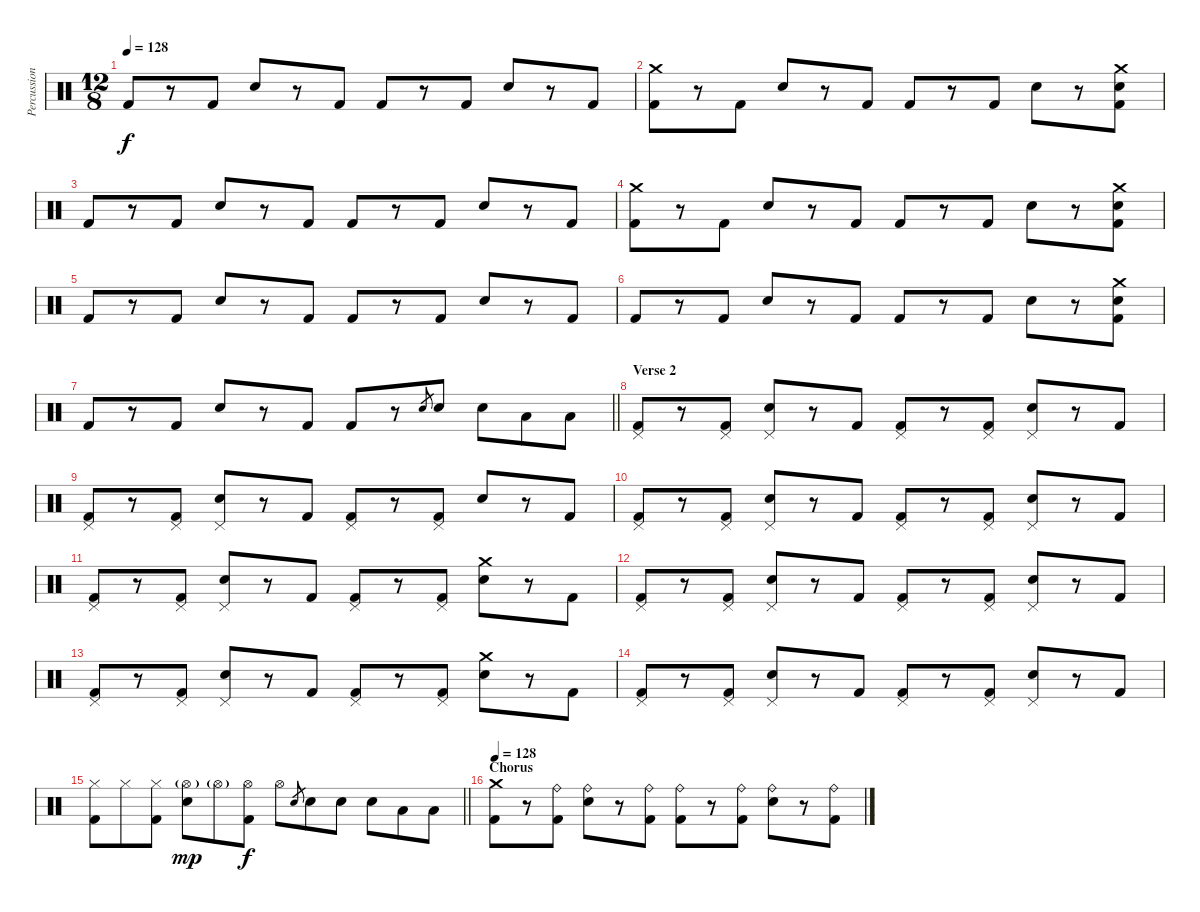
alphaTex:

\track ("Percussion" "Percussion") {instrument percussion}
\staff {score}
\articulation defaults
\ts (12 8)
\tempo 128
\clef neutral
\ks c "Kick (hit) 2".8{dy f}
r.8 "Kick (hit) 2".8 "Snare (hit) 2".8 r.8 "Kick (hit) 2".8 "Kick (hit) 2".8 r.8 "Kick (hit) 2".8 "Snare (hit) 2".8 r.8 "Kick (hit) 2".8 |
("Crash medium (hit)" "Kick (hit) 2").8 r.8 "Kick (hit) 2".8 "Snare (hit) 2".8 r.8 "Kick (hit) 2".8 "Kick (hit) 2".8 r.8 "Kick (hit) 2".8 "Snare (hit) 2".8 r.8 ("Crash medium (hit)" "Snare (hit) 2" "Kick (hit) 2").8 |
"Kick (hit) 2".8 r.8 "Kick (hit) 2".8 "Snare (hit) 2".8 r.8 "Kick (hit) 2".8 "Kick (hit) 2".8 r.8 "Kick (hit) 2".8 "Snare (hit) 2".8 r.8 "Kick (hit) 2".8 |
("Crash medium (hit)" "Kick (hit) 2").8 r.8 "Kick (hit) 2".8 "Snare (hit) 2".8 r.8 "Kick (hit) 2".8 "Kick (hit) 2".8 r.8 "Kick (hit) 2".8 "Snare (hit) 2".8 r.8 ("Crash medium (hit)" "Snare (hit) 2" "Kick (hit) 2").8 |
"Kick (hit) 2".8 r.8 "Kick (hit) 2".8 "Snare (hit) 2".8 r.8 "Kick (hit) 2".8 "Kick (hit) 2".8 r.8 "Kick (hit) 2".8 "Snare (hit) 2".8 r.8 "Kick (hit) 2".8 |
"Kick (hit) 2".8 r.8 "Kick (hit) 2".8 "Snare (hit) 2".8 r.8 "Kick (hit) 2".8 "Kick (hit) 2".8 r.8 "Kick (hit) 2".8 "Snare (hit) 2".8 r.8 ("Crash medium (hit)" "Snare (hit) 2" "Kick (hit) 2").8 |
\barLineRight lightlight "Kick (hit) 2".8
r.8 "Kick (hit) 2".8 "Snare (hit) 2".8 r.8 "Kick (hit) 2".8 "Kick (hit) 2".8 r.8 "Snare (hit) 2".8{gr} "Snare (hit) 2".8 "Snare (hit) 2".8 "Low Tom (hit)".8 "Low Floor Tom (hit)".8 |
\section ("" "Verse 2")
("Pedal Hi-Hat (hit)" "Kick (hit) 2").8 r.8 ("Pedal Hi-Hat (hit)" "Kick (hit) 2").8 ("Pedal Hi-Hat (hit)" "Snare (hit) 2").8 r.8 "Kick (hit) 2".8 ("Pedal Hi-Hat (hit)" "Kick (hit) 2").8 r.8 ("Pedal Hi-Hat (hit)" "Kick (hit) 2").8 ("Pedal Hi-Hat (hit)" "Snare (hit) 2").8 r.8 "Kick (hit) 2".8 |
("Pedal Hi-Hat (hit)" "Kick (hit) 2").8 r.8 ("Pedal Hi-Hat (hit)" "Kick (hit) 2").8 ("Pedal Hi-Hat (hit)" "Snare (hit) 2").8 r.8 "Kick (hit) 2".8 ("Pedal Hi-Hat (hit)" "Kick (hit) 2").8 r.8 ("Pedal Hi-Hat (hit)" "Kick (hit) 2").8 "Snare (hit) 2".8 r.8 "Kick (hit) 2".8 |
("Pedal Hi-Hat (hit)" "Kick (hit) 2").8 r.8 ("Pedal Hi-Hat (hit)" "Kick (hit) 2").8 ("Pedal Hi-Hat (hit)" "Snare (hit) 2").8 r.8 "Kick (hit) 2".8 ("Pedal Hi-Hat (hit)" "Kick (hit) 2").8 r.8 ("Pedal Hi-Hat (hit)" "Kick (hit) 2").8 ("Pedal Hi-Hat (hit)" "Snare (hit) 2").8 r.8 "Kick (hit) 2".8 |
("Pedal Hi-Hat (hit)" "Kick (hit) 2").8 r.8 ("Pedal Hi-Hat (hit)" "Kick (hit) 2").8 ("Pedal Hi-Hat (hit)" "Snare (hit) 2").8 r.8 "Kick (hit) 2".8 ("Pedal Hi-Hat (hit)" "Kick (hit) 2").8 r.8 ("Pedal Hi-Hat (hit)" "Kick (hit) 2").8 ("Crash medium (hit)" "Snare (hit) 2").8 r.8 "Kick (hit) 2".8 |
("Pedal Hi-Hat (hit)" "Kick (hit) 2").8 r.8 ("Pedal Hi-Hat (hit)" "Kick (hit) 2").8 ("Pedal Hi-Hat (hit)" "Snare (hit) 2").8 r.8 "Kick (hit) 2".8 ("Pedal Hi-Hat (hit)" "Kick (hit) 2").8 r.8 ("Pedal Hi-Hat (hit)" "Kick (hit) 2").8 ("Pedal Hi-Hat (hit)" "Snare (hit) 2").8 r.8 "Kick (hit) 2".8 |
("Pedal Hi-Hat (hit)" "Kick (hit) 2").8 r.8 ("Pedal Hi-Hat (hit)" "Kick (hit) 2").8 ("Pedal Hi-Hat (hit)" "Snare (hit) 2").8 r.8 "Kick (hit) 2".8 ("Pedal Hi-Hat (hit)" "Kick (hit) 2").8 r.8 ("Pedal Hi-Hat (hit)" "Kick (hit) 2").8 ("Crash medium (hit)" "Snare (hit) 2").8 r.8 "Kick (hit) 2".8 |
("Pedal Hi-Hat (hit)" "Kick (hit) 2").8 r.8 ("Pedal Hi-Hat (hit)" "Kick (hit) 2").8 ("Pedal Hi-Hat (hit)" "Snare (hit) 2").8 r.8 "Kick (hit) 2".8 ("Pedal Hi-Hat (hit)" "Kick (hit) 2").8 r.8 ("Pedal Hi-Hat (hit)" "Kick (hit) 2").8 ("Pedal Hi-Hat (hit)" "Snare (hit) 2").8 r.8 "Kick (hit) 2".8 |
\barLineRight lightlight
("Hi-Hat (closed)" "Kick (hit) 2").8 "Hi-Hat (closed)".8 ("Hi-Hat (closed)" "Kick (hit) 2").8 ("Hi-Hat (open)"{g} "Snare (hit) 2").8{dy mp} "Hi-Hat (open)"{g}.8 ("Hi-Hat (open)" "Kick (hit) 2").8{dy f} "Hi-Hat (open)".8 "Snare (hit) 2".8{gr} "Snare (hit) 2".8 "Snare (hit) 2".8 "Snare (hit) 2".8 "Low Tom (hit)".8 "Low Floor Tom (hit)".8 |
\section ("" "Chorus")
\tempo 128
("Crash medium (hit)" "Kick (hit) 2").8 r.8 ("Ride (bell)" "Kick (hit) 2").8 ("Ride (bell)" "Snare (hit) 2").8 r.8 ("Ride (bell)" "Kick (hit) 2").8 ("Ride (bell)" "Kick (hit) 2").8 r.8 ("Ride (bell)" "Kick (hit) 2").8 ("Ride (bell)" "Snare (hit) 2").8 r.8 ("Ride (bell)" "Kick (hit) 2").8
